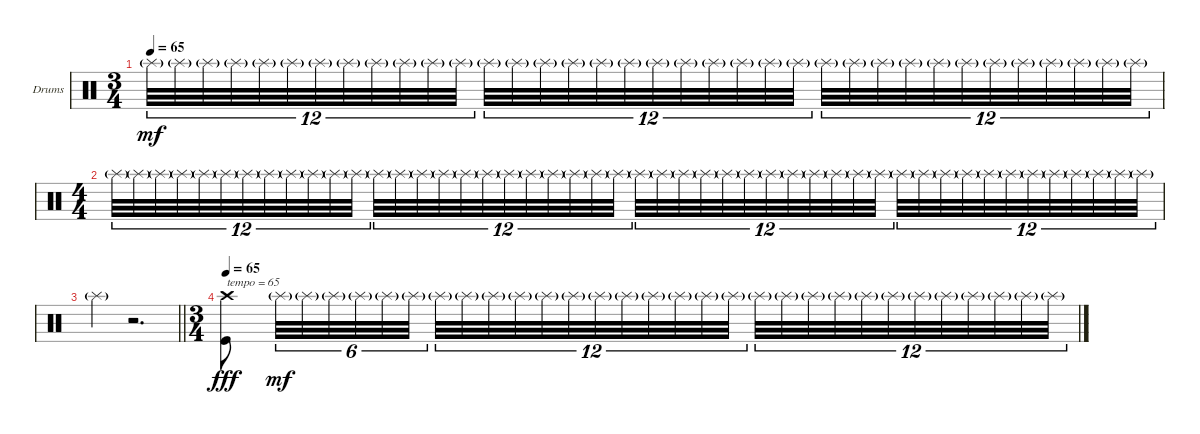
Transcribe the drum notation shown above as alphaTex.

\bracketExtendMode groupsimilarinstruments
\firstSystemTrackNameOrientation horizontal
\otherSystemsTrackNameOrientation horizontal
\track ("5" "Drums") {instrument percussion}
\staff {score}
\articulation defaults
\ts (3 4)
\beaming (8 2 2 2)
\tempo 65
\clef neutral
\ks c "Splash (hit)"{g}.32{tu (12 8) dy mf} "Splash (hit)"{g}.32{tu (12 8)} "Splash (hit)"{g}.32{tu (12 8)} "Splash (hit)"{g}.32{tu (12 8)} "Splash (hit)"{g}.32{tu (12 8)} "Splash (hit)"{g}.32{tu (12 8)} "Splash (hit)"{g}.32{tu (12 8)} "Splash (hit)"{g}.32{tu (12 8)} "Splash (hit)"{g}.32{tu (12 8)} "Splash (hit)"{g}.32{tu (12 8)} "Splash (hit)"{g}.32{tu (12 8)} "Splash (hit)"{g}.32{tu (12 8)} "Splash (hit)"{g}.32{tu (12 8)} "Splash (hit)"{g}.32{tu (12 8)} "Splash (hit)"{g}.32{tu (12 8)} "Splash (hit)"{g}.32{tu (12 8)} "Splash (hit)"{g}.32{tu (12 8)} "Splash (hit)"{g}.32{tu (12 8)} "Splash (hit)"{g}.32{tu (12 8)} "Splash (hit)"{g}.32{tu (12 8)} "Splash (hit)"{g}.32{tu (12 8)} "Splash (hit)"{g}.32{tu (12 8)} "Splash (hit)"{g}.32{tu (12 8)} "Splash (hit)"{g}.32{tu (12 8)} "Splash (hit)"{g}.32{tu (12 8)} "Splash (hit)"{g}.32{tu (12 8)} "Splash (hit)"{g}.32{tu (12 8)} "Splash (hit)"{g}.32{tu (12 8)} "Splash (hit)"{g}.32{tu (12 8)} "Splash (hit)"{g}.32{tu (12 8)} "Splash (hit)"{g}.32{tu (12 8)} "Splash (hit)"{g}.32{tu (12 8)} "Splash (hit)"{g}.32{tu (12 8)} "Splash (hit)"{g}.32{tu (12 8)} "Splash (hit)"{g}.32{tu (12 8)} "Splash (hit)"{g}.32{tu (12 8)}
|
\ts (4 4)
\beaming (8 2 2 2 2)
"Splash (hit)"{g}.32{tu (12 8)} "Splash (hit)"{g}.32{tu (12 8)} "Splash (hit)"{g}.32{tu (12 8)} "Splash (hit)"{g}.32{tu (12 8)} "Splash (hit)"{g}.32{tu (12 8)} "Splash (hit)"{g}.32{tu (12 8)} "Splash (hit)"{g}.32{tu (12 8)} "Splash (hit)"{g}.32{tu (12 8)} "Splash (hit)"{g}.32{tu (12 8)} "Splash (hit)"{g}.32{tu (12 8)} "Splash (hit)"{g}.32{tu (12 8)} "Splash (hit)"{g}.32{tu (12 8)} "Splash (hit)"{g}.32{tu (12 8)} "Splash (hit)"{g}.32{tu (12 8)} "Splash (hit)"{g}.32{tu (12 8)} "Splash (hit)"{g}.32{tu (12 8)} "Splash (hit)"{g}.32{tu (12 8)} "Splash (hit)"{g}.32{tu (12 8)} "Splash (hit)"{g}.32{tu (12 8)} "Splash (hit)"{g}.32{tu (12 8)} "Splash (hit)"{g}.32{tu (12 8)} "Splash (hit)"{g}.32{tu (12 8)} "Splash (hit)"{g}.32{tu (12 8)} "Splash (hit)"{g}.32{tu (12 8)} "Splash (hit)"{g}.32{tu (12 8)} "Splash (hit)"{g}.32{tu (12 8)} "Splash (hit)"{g}.32{tu (12 8)} "Splash (hit)"{g}.32{tu (12 8)} "Splash (hit)"{g}.32{tu (12 8)} "Splash (hit)"{g}.32{tu (12 8)} "Splash (hit)"{g}.32{tu (12 8)} "Splash (hit)"{g}.32{tu (12 8)} "Splash (hit)"{g}.32{tu (12 8)} "Splash (hit)"{g}.32{tu (12 8)} "Splash (hit)"{g}.32{tu (12 8)} "Splash (hit)"{g}.32{tu (12 8)} "Splash (hit)"{g}.32{tu (12 8)} "Splash (hit)"{g}.32{tu (12 8)} "Splash (hit)"{g}.32{tu (12 8)} "Splash (hit)"{g}.32{tu (12 8)} "Splash (hit)"{g}.32{tu (12 8)} "Splash (hit)"{g}.32{tu (12 8)} "Splash (hit)"{g}.32{tu (12 8)} "Splash (hit)"{g}.32{tu (12 8)} "Splash (hit)"{g}.32{tu (12 8)} "Splash (hit)"{g}.32{tu (12 8)} "Splash (hit)"{g}.32{tu (12 8)} "Splash (hit)"{g}.32{tu (12 8)} |
\barLineRight lightlight "Splash (hit)"{g}.4
r.2{d} |
\ts (3 4)
\beaming (8 2 2 2)
\tempo 65
("Crash high (hit)" "Kick (hit)").8{txt "tempo = 65" dy fff} "Splash (hit)"{g}.32{tu (6 4) dy mf} "Splash (hit)"{g}.32{tu (6 4)} "Splash (hit)"{g}.32{tu (6 4)} "Splash (hit)"{g}.32{tu (6 4)} "Splash (hit)"{g}.32{tu (6 4)} "Splash (hit)"{g}.32{tu (6 4)} "Splash (hit)"{g}.32{tu (12 8)} "Splash (hit)"{g}.32{tu (12 8)} "Splash (hit)"{g}.32{tu (12 8)} "Splash (hit)"{g}.32{tu (12 8)} "Splash (hit)"{g}.32{tu (12 8)} "Splash (hit)"{g}.32{tu (12 8)} "Splash (hit)"{g}.32{tu (12 8)} "Splash (hit)"{g}.32{tu (12 8)} "Splash (hit)"{g}.32{tu (12 8)} "Splash (hit)"{g}.32{tu (12 8)} "Splash (hit)"{g}.32{tu (12 8)} "Splash (hit)"{g}.32{tu (12 8)} "Splash (hit)"{g}.32{tu (12 8)} "Splash (hit)"{g}.32{tu (12 8)} "Splash (hit)"{g}.32{tu (12 8)} "Splash (hit)"{g}.32{tu (12 8)} "Splash (hit)"{g}.32{tu (12 8)} "Splash (hit)"{g}.32{tu (12 8)} "Splash (hit)"{g}.32{tu (12 8)} "Splash (hit)"{g}.32{tu (12 8)} "Splash (hit)"{g}.32{tu (12 8)} "Splash (hit)"{g}.32{tu (12 8)} "Splash (hit)"{g}.32{tu (12 8)} "Splash (hit)"{g}.32{tu (12 8)}
